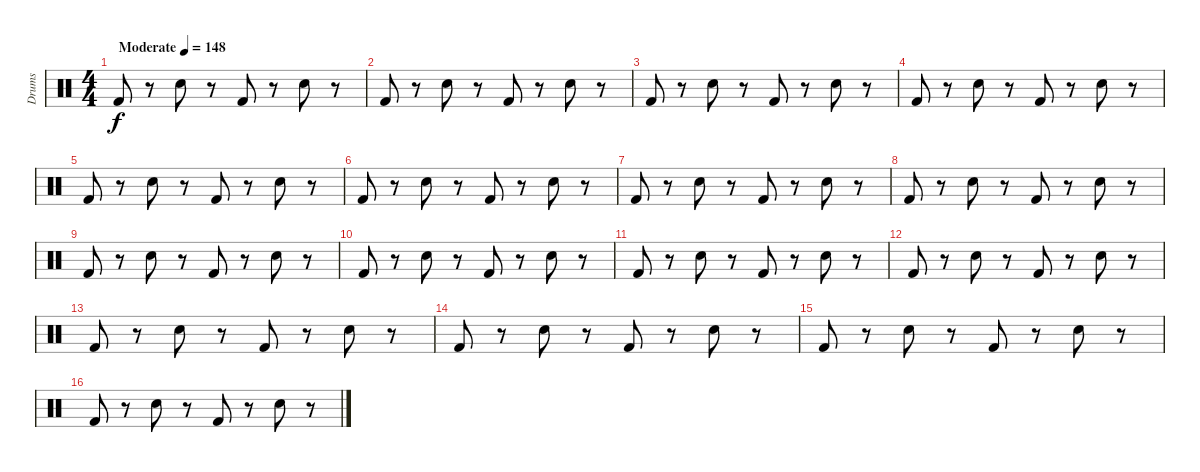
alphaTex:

\track ("Drums" "Drums") {instrument percussion}
\staff {score}
\articulation defaults
\ts (4 4)
\tempo (148 "Moderate")
\clef neutral
\ks c "Kick (hit) 2".8{dy f}
r.8 "Electric Snare (hit)".8 r.8 "Kick (hit) 2".8 r.8 "Electric Snare (hit)".8 r.8 |
"Kick (hit) 2".8 r.8 "Electric Snare (hit)".8 r.8 "Kick (hit) 2".8 r.8 "Electric Snare (hit)".8 r.8 |
"Kick (hit) 2".8 r.8 "Electric Snare (hit)".8 r.8 "Kick (hit) 2".8 r.8 "Electric Snare (hit)".8 r.8 |
"Kick (hit) 2".8 r.8 "Electric Snare (hit)".8 r.8 "Kick (hit) 2".8 r.8 "Electric Snare (hit)".8 r.8 |
"Kick (hit) 2".8 r.8 "Electric Snare (hit)".8 r.8 "Kick (hit) 2".8 r.8 "Electric Snare (hit)".8 r.8 |
"Kick (hit) 2".8 r.8 "Electric Snare (hit)".8 r.8 "Kick (hit) 2".8 r.8 "Electric Snare (hit)".8 r.8 |
"Kick (hit) 2".8 r.8 "Electric Snare (hit)".8 r.8 "Kick (hit) 2".8 r.8 "Electric Snare (hit)".8 r.8 |
"Kick (hit) 2".8 r.8 "Electric Snare (hit)".8 r.8 "Kick (hit) 2".8 r.8 "Electric Snare (hit)".8 r.8 |
"Kick (hit) 2".8 r.8 "Electric Snare (hit)".8 r.8 "Kick (hit) 2".8 r.8 "Electric Snare (hit)".8 r.8 |
"Kick (hit) 2".8 r.8 "Electric Snare (hit)".8 r.8 "Kick (hit) 2".8 r.8 "Electric Snare (hit)".8 r.8 |
"Kick (hit) 2".8 r.8 "Electric Snare (hit)".8 r.8 "Kick (hit) 2".8 r.8 "Electric Snare (hit)".8 r.8 |
"Kick (hit) 2".8 r.8 "Electric Snare (hit)".8 r.8 "Kick (hit) 2".8 r.8 "Electric Snare (hit)".8 r.8 |
"Kick (hit) 2".8 r.8 "Electric Snare (hit)".8 r.8 "Kick (hit) 2".8 r.8 "Electric Snare (hit)".8 r.8 |
"Kick (hit) 2".8 r.8 "Electric Snare (hit)".8 r.8 "Kick (hit) 2".8 r.8 "Electric Snare (hit)".8 r.8 |
"Kick (hit) 2".8 r.8 "Electric Snare (hit)".8 r.8 "Kick (hit) 2".8 r.8 "Electric Snare (hit)".8 r.8 |
"Kick (hit) 2".8 r.8 "Electric Snare (hit)".8 r.8 "Kick (hit) 2".8 r.8 "Electric Snare (hit)".8 r.8
